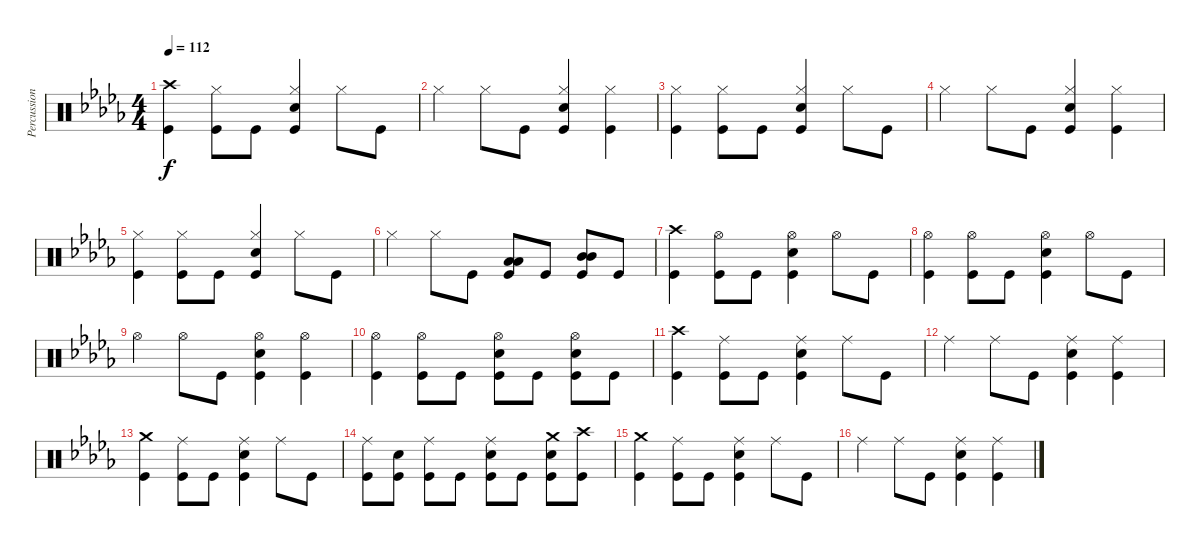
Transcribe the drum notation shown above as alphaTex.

\track ("Percussion" "Percussion") {instrument percussion}
\staff {score}
\articulation defaults
\ts (4 4)
\tempo 112
\clef neutral
\ks bbminor
("Kick (hit)" "Crash high (hit)").4{dy f} ("Kick (hit)" "Hi-Hat (closed)").8 "Kick (hit)".8 ("Kick (hit)" "Snare (hit) 2" "Hi-Hat (closed)").4 "Hi-Hat (closed)".8 "Kick (hit)".8 |
"Hi-Hat (closed)".4 "Hi-Hat (closed)".8 "Kick (hit)".8 ("Kick (hit)" "Snare (hit) 2" "Hi-Hat (closed)").4 ("Kick (hit)" "Hi-Hat (closed)").4 |
("Kick (hit)" "Hi-Hat (closed)").4 ("Kick (hit)" "Hi-Hat (closed)").8 "Kick (hit)".8 ("Kick (hit)" "Snare (hit) 2" "Hi-Hat (closed)").4 "Hi-Hat (closed)".8 "Kick (hit)".8 |
"Hi-Hat (closed)".4 "Hi-Hat (closed)".8 "Kick (hit)".8 ("Kick (hit)" "Snare (hit) 2" "Hi-Hat (closed)").4 ("Kick (hit)" "Hi-Hat (closed)").4 |
("Kick (hit)" "Hi-Hat (closed)").4 ("Kick (hit)" "Hi-Hat (closed)").8 "Kick (hit)".8 ("Kick (hit)" "Snare (hit) 2" "Hi-Hat (closed)").4 "Hi-Hat (closed)".8 "Kick (hit)".8 |
"Hi-Hat (closed)".4 "Hi-Hat (closed)".8 "Kick (hit)".8 ("Kick (hit)" "Low Floor Tom (hit)" "Low Floor Tom (hit)").8 "Kick (hit)".8 ("Kick (hit)" "Mid Tom (hit)" "Mid Tom (hit)").8 "Kick (hit)".8 |
("Kick (hit)" "Crash high (hit)").4 ("Kick (hit)" "Hi-Hat (open)").8 "Kick (hit)".8 ("Kick (hit)" "Snare (hit) 2" "Hi-Hat (open)").4 "Hi-Hat (open)".8 "Kick (hit)".8 |
("Kick (hit)" "Hi-Hat (open)").4 ("Kick (hit)" "Hi-Hat (open)").8 "Kick (hit)".8 ("Kick (hit)" "Snare (hit) 2" "Hi-Hat (open)").4 "Hi-Hat (open)".8 "Kick (hit)".8 |
"Hi-Hat (open)".4 "Hi-Hat (open)".8 "Kick (hit)".8 ("Kick (hit)" "Snare (hit) 2" "Hi-Hat (open)").4 ("Kick (hit)" "Hi-Hat (open)").4 |
("Kick (hit)" "Hi-Hat (open)").4 ("Kick (hit)" "Hi-Hat (open)").8 "Kick (hit)".8 ("Kick (hit)" "Snare (hit) 2" "Hi-Hat (open)").8 "Kick (hit)".8 ("Kick (hit)" "Snare (hit) 2" "Hi-Hat (open)").8 "Kick (hit)".8 |
("Kick (hit)" "Crash high (hit)").4 ("Kick (hit)" "Ride (middle)").8 "Kick (hit)".8 ("Kick (hit)" "Snare (hit) 2" "Ride (middle)").4 "Ride (middle)".8 "Kick (hit)".8 |
"Ride (middle)".4 "Ride (middle)".8 "Kick (hit)".8 ("Kick (hit)" "Snare (hit) 2" "Ride (middle)").4 ("Kick (hit)" "Ride (middle)").4 |
("Kick (hit)" "Crash medium (hit)").4 ("Kick (hit)" "Ride (middle)").8 "Kick (hit)".8 ("Kick (hit)" "Snare (hit) 2" "Ride (middle)").4 "Ride (middle)".8 "Kick (hit)".8 |
("Kick (hit)" "Ride (middle)").8 ("Kick (hit)" "Snare (hit) 2").8 ("Kick (hit)" "Ride (middle)").8 "Kick (hit)".8 ("Kick (hit)" "Snare (hit) 2" "Ride (middle)").8 "Kick (hit)".8 ("Kick (hit)" "Snare (hit) 2" "Crash medium (hit)").8 ("Kick (hit)" "Crash high (hit)").8 |
("Kick (hit)" "Crash medium (hit)").4 ("Kick (hit)" "Ride (middle)").8 "Kick (hit)".8 ("Kick (hit)" "Snare (hit) 2" "Ride (middle)").4 "Ride (middle)".8 "Kick (hit)".8 |
"Ride (middle)".4 "Ride (middle)".8 "Kick (hit)".8 ("Kick (hit)" "Snare (hit) 2" "Ride (middle)").4 ("Kick (hit)" "Ride (middle)").4
